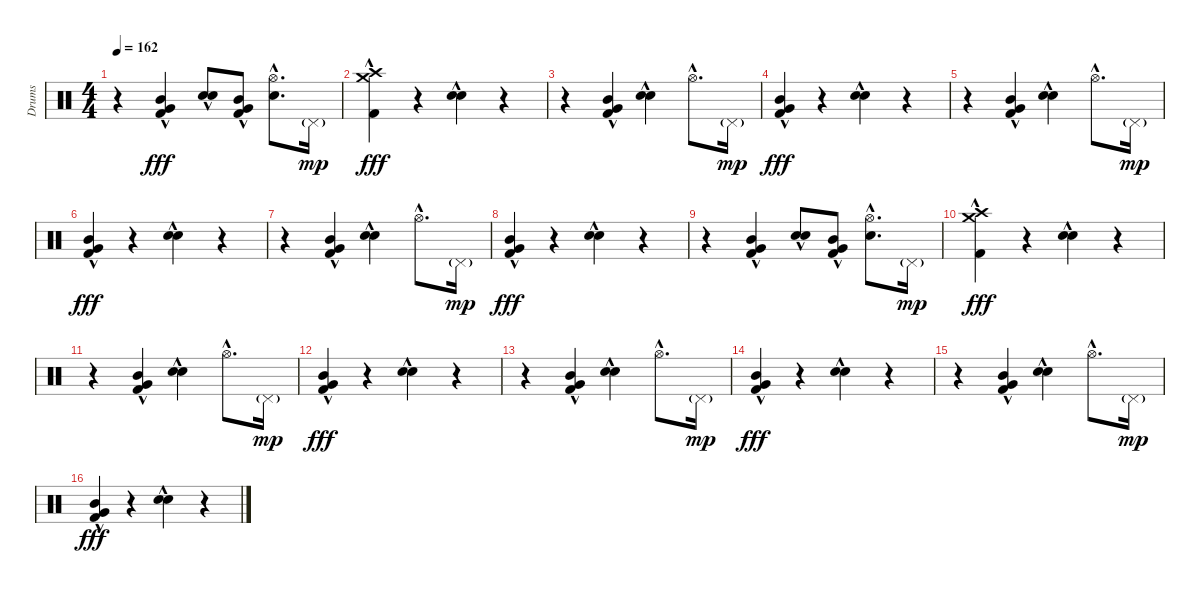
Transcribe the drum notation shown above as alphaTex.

\track ("Drums" "Drums") {instrument percussion}
\staff {score}
\articulation defaults
\ts (4 4)
\tempo 162
\clef neutral
\ks c
r.4{dy fff} ("Mid Tom (hit)"{hac} "Very Low Tom (hit)"{hac} "Kick (hit) 2"{hac}).4 ("Electric Snare (hit)"{hac} "Electric Snare (hit)"{hac}).8 ("Mid Tom (hit)"{hac} "Very Low Tom (hit)"{hac} "Kick (hit) 2"{hac}).8 ("Hi-Hat (open)"{hac} "Electric Snare (hit)"{hac}).8{d} "Pedal Hi-Hat (hit)"{g}.16{dy mp} |
("Crash medium (hit)"{hac} "Crash high (hit)"{hac} "Kick (hit) 2"{hac}).4{dy fff} r.4 ("Electric Snare (hit)"{hac} "Electric Snare (hit)"{hac}).4 r.4 |
r.4 ("Mid Tom (hit)"{hac} "Very Low Tom (hit)"{hac} "Kick (hit) 2"{hac}).4 ("Electric Snare (hit)"{hac} "Electric Snare (hit)"{hac}).4 "Hi-Hat (open)"{hac}.8{d} "Pedal Hi-Hat (hit)"{g}.16{dy mp} |
("Mid Tom (hit)"{hac} "Very Low Tom (hit)"{hac} "Kick (hit) 2"{hac}).4{dy fff} r.4 ("Electric Snare (hit)"{hac} "Electric Snare (hit)"{hac}).4 r.4 |
r.4 ("Mid Tom (hit)"{hac} "Very Low Tom (hit)"{hac} "Kick (hit) 2"{hac}).4 ("Electric Snare (hit)"{hac} "Electric Snare (hit)"{hac}).4 "Hi-Hat (open)"{hac}.8{d} "Pedal Hi-Hat (hit)"{g}.16{dy mp} |
("Mid Tom (hit)"{hac} "Very Low Tom (hit)"{hac} "Kick (hit) 2"{hac}).4{dy fff} r.4 ("Electric Snare (hit)"{hac} "Electric Snare (hit)"{hac}).4 r.4 |
r.4 ("Mid Tom (hit)"{hac} "Very Low Tom (hit)"{hac} "Kick (hit) 2"{hac}).4 ("Electric Snare (hit)"{hac} "Electric Snare (hit)"{hac}).4 "Hi-Hat (open)"{hac}.8{d} "Pedal Hi-Hat (hit)"{g}.16{dy mp} |
("Mid Tom (hit)"{hac} "Very Low Tom (hit)"{hac} "Kick (hit) 2"{hac}).4{dy fff} r.4 ("Electric Snare (hit)"{hac} "Electric Snare (hit)"{hac}).4 r.4 |
r.4 ("Mid Tom (hit)"{hac} "Very Low Tom (hit)"{hac} "Kick (hit) 2"{hac}).4 ("Electric Snare (hit)"{hac} "Electric Snare (hit)"{hac}).8 ("Mid Tom (hit)"{hac} "Very Low Tom (hit)"{hac} "Kick (hit) 2"{hac}).8 ("Hi-Hat (open)"{hac} "Electric Snare (hit)"{hac}).8{d} "Pedal Hi-Hat (hit)"{g}.16{dy mp} |
("Crash medium (hit)"{hac} "Crash high (hit)"{hac} "Kick (hit) 2"{hac}).4{dy fff} r.4 ("Electric Snare (hit)"{hac} "Electric Snare (hit)"{hac}).4 r.4 |
r.4 ("Mid Tom (hit)"{hac} "Very Low Tom (hit)"{hac} "Kick (hit) 2"{hac}).4 ("Electric Snare (hit)"{hac} "Electric Snare (hit)"{hac}).4 "Hi-Hat (open)"{hac}.8{d} "Pedal Hi-Hat (hit)"{g}.16{dy mp} |
("Mid Tom (hit)"{hac} "Very Low Tom (hit)"{hac} "Kick (hit) 2"{hac}).4{dy fff} r.4 ("Electric Snare (hit)"{hac} "Electric Snare (hit)"{hac}).4 r.4 |
r.4 ("Mid Tom (hit)"{hac} "Very Low Tom (hit)"{hac} "Kick (hit) 2"{hac}).4 ("Electric Snare (hit)"{hac} "Electric Snare (hit)"{hac}).4 "Hi-Hat (open)"{hac}.8{d} "Pedal Hi-Hat (hit)"{g}.16{dy mp} |
("Mid Tom (hit)"{hac} "Very Low Tom (hit)"{hac} "Kick (hit) 2"{hac}).4{dy fff} r.4 ("Electric Snare (hit)"{hac} "Electric Snare (hit)"{hac}).4 r.4 |
r.4 ("Mid Tom (hit)"{hac} "Very Low Tom (hit)"{hac} "Kick (hit) 2"{hac}).4 ("Electric Snare (hit)"{hac} "Electric Snare (hit)"{hac}).4 "Hi-Hat (open)"{hac}.8{d} "Pedal Hi-Hat (hit)"{g}.16{dy mp} |
("Mid Tom (hit)"{hac} "Very Low Tom (hit)"{hac} "Kick (hit) 2"{hac}).4{dy fff} r.4 ("Electric Snare (hit)"{hac} "Electric Snare (hit)"{hac}).4 r.4
